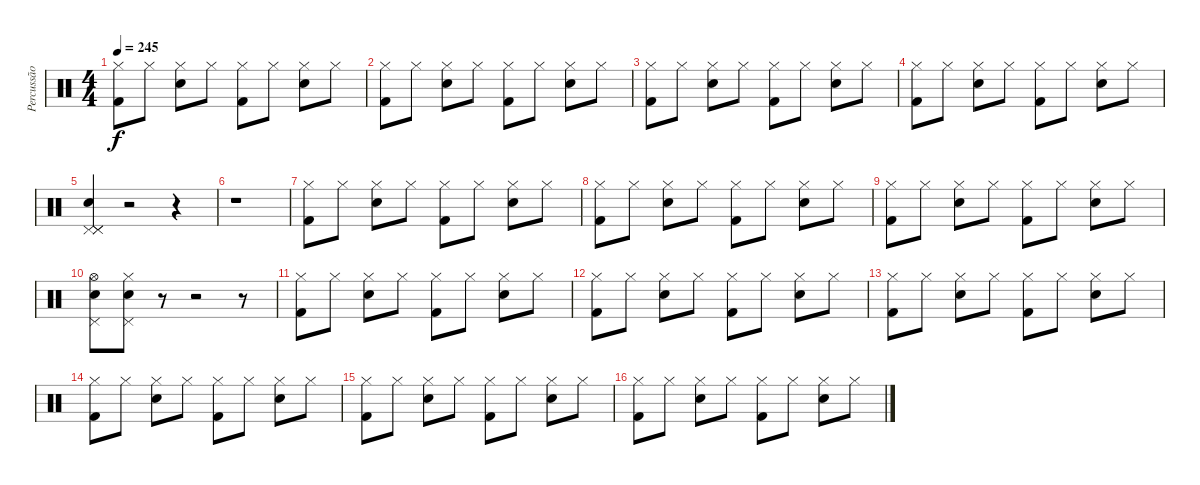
\track ("Percussão" "Percussão") {instrument percussion}
\staff {score}
\articulation defaults
\ts (4 4)
\tempo 245
\clef neutral
\ks c
("Hi-Hat (closed)" "Kick (hit) 2").8{dy f} "Hi-Hat (closed)".8 ("Hi-Hat (closed)" "Snare (hit) 2").8 "Hi-Hat (closed)".8 ("Hi-Hat (closed)" "Kick (hit) 2").8 "Hi-Hat (closed)".8 ("Hi-Hat (closed)" "Snare (hit) 2").8 "Hi-Hat (closed)".8 |
("Hi-Hat (closed)" "Kick (hit) 2").8 "Hi-Hat (closed)".8 ("Hi-Hat (closed)" "Snare (hit) 2").8 "Hi-Hat (closed)".8 ("Hi-Hat (closed)" "Kick (hit) 2").8 "Hi-Hat (closed)".8 ("Hi-Hat (closed)" "Snare (hit) 2").8 "Hi-Hat (closed)".8 |
("Hi-Hat (closed)" "Kick (hit) 2").8 "Hi-Hat (closed)".8 ("Hi-Hat (closed)" "Snare (hit) 2").8 "Hi-Hat (closed)".8 ("Hi-Hat (closed)" "Kick (hit) 2").8 "Hi-Hat (closed)".8 ("Hi-Hat (closed)" "Snare (hit) 2").8 "Hi-Hat (closed)".8 |
("Hi-Hat (closed)" "Kick (hit) 2").8 "Hi-Hat (closed)".8 ("Hi-Hat (closed)" "Snare (hit) 2").8 "Hi-Hat (closed)".8 ("Hi-Hat (closed)" "Kick (hit) 2").8 "Hi-Hat (closed)".8 ("Hi-Hat (closed)" "Snare (hit) 2").8 "Hi-Hat (closed)".8 |
("Pedal Hi-Hat (hit)" "Pedal Hi-Hat (hit)" "Snare (hit) 2" "Pedal Hi-Hat (hit)").4 r.2 r.4 |
r.1 |
("Hi-Hat (closed)" "Kick (hit) 2").8 "Hi-Hat (closed)".8 ("Hi-Hat (closed)" "Snare (hit) 2").8 "Hi-Hat (closed)".8 ("Hi-Hat (closed)" "Kick (hit) 2").8 "Hi-Hat (closed)".8 ("Hi-Hat (closed)" "Snare (hit) 2").8 "Hi-Hat (closed)".8 |
("Hi-Hat (closed)" "Kick (hit) 2").8 "Hi-Hat (closed)".8 ("Hi-Hat (closed)" "Snare (hit) 2").8 "Hi-Hat (closed)".8 ("Hi-Hat (closed)" "Kick (hit) 2").8 "Hi-Hat (closed)".8 ("Hi-Hat (closed)" "Snare (hit) 2").8 "Hi-Hat (closed)".8 |
("Hi-Hat (closed)" "Kick (hit) 2").8 "Hi-Hat (closed)".8 ("Hi-Hat (closed)" "Snare (hit) 2").8 "Hi-Hat (closed)".8 ("Hi-Hat (closed)" "Kick (hit) 2").8 "Hi-Hat (closed)".8 ("Hi-Hat (closed)" "Snare (hit) 2").8 "Hi-Hat (closed)".8 |
("Hi-Hat (open)" "Pedal Hi-Hat (hit)" "Snare (hit)").8 ("Hi-Hat (closed)" "Pedal Hi-Hat (hit)" "Snare (hit) 2").8 r.8 r.2 r.8 |
("Hi-Hat (closed)" "Kick (hit) 2").8 "Hi-Hat (closed)".8 ("Hi-Hat (closed)" "Snare (hit) 2").8 "Hi-Hat (closed)".8 ("Hi-Hat (closed)" "Kick (hit) 2").8 "Hi-Hat (closed)".8 ("Hi-Hat (closed)" "Snare (hit) 2").8 "Hi-Hat (closed)".8 |
("Hi-Hat (closed)" "Kick (hit) 2").8 "Hi-Hat (closed)".8 ("Hi-Hat (closed)" "Snare (hit) 2").8 "Hi-Hat (closed)".8 ("Hi-Hat (closed)" "Kick (hit) 2").8 "Hi-Hat (closed)".8 ("Hi-Hat (closed)" "Snare (hit) 2").8 "Hi-Hat (closed)".8 |
("Hi-Hat (closed)" "Kick (hit) 2").8 "Hi-Hat (closed)".8 ("Hi-Hat (closed)" "Snare (hit) 2").8 "Hi-Hat (closed)".8 ("Hi-Hat (closed)" "Kick (hit) 2").8 "Hi-Hat (closed)".8 ("Hi-Hat (closed)" "Snare (hit) 2").8 "Hi-Hat (closed)".8 |
("Hi-Hat (closed)" "Kick (hit) 2").8 "Hi-Hat (closed)".8 ("Hi-Hat (closed)" "Snare (hit) 2").8 "Hi-Hat (closed)".8 ("Hi-Hat (closed)" "Kick (hit) 2").8 "Hi-Hat (closed)".8 ("Hi-Hat (closed)" "Snare (hit) 2").8 "Hi-Hat (closed)".8 |
("Hi-Hat (closed)" "Kick (hit) 2").8 "Hi-Hat (closed)".8 ("Hi-Hat (closed)" "Snare (hit) 2").8 "Hi-Hat (closed)".8 ("Hi-Hat (closed)" "Kick (hit) 2").8 "Hi-Hat (closed)".8 ("Hi-Hat (closed)" "Snare (hit) 2").8 "Hi-Hat (closed)".8 |
("Hi-Hat (closed)" "Kick (hit) 2").8 "Hi-Hat (closed)".8 ("Hi-Hat (closed)" "Snare (hit) 2").8 "Hi-Hat (closed)".8 ("Hi-Hat (closed)" "Kick (hit) 2").8 "Hi-Hat (closed)".8 ("Hi-Hat (closed)" "Snare (hit) 2").8 "Hi-Hat (closed)".8
